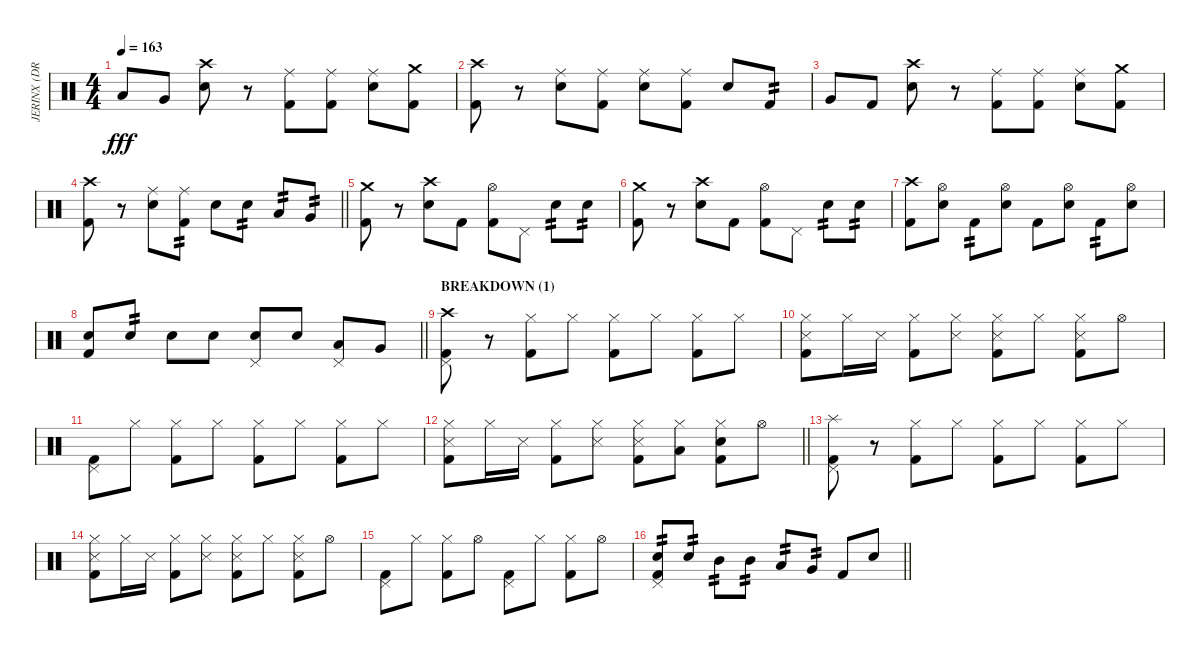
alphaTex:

\track ("JERINX (DRUM)" "JERINX (DR") {instrument percussion}
\staff {score}
\articulation defaults
\ts (4 4)
\tempo 163
\clef neutral
\ks c "Low Tom (hit)".8{dy fff} "Very Low Tom (hit)".8
("Snare (hit) 2" "Crash high (hit)").8 r.8 ("Kick (hit) 2" "Ride (middle)").8 ("Kick (hit) 2" "Ride (middle)").8 ("Snare (hit) 2" "Ride (middle)").8 ("Kick (hit) 2" "Crash medium (hit)").8 |
("Kick (hit) 2" "Crash high (hit)").8 r.8 ("Snare (hit) 2" "Ride (middle)").8 ("Kick (hit) 2" "Ride (middle)").8 ("Snare (hit) 2" "Ride (middle)").8 ("Kick (hit) 2" "Ride (middle)").8 "Snare (hit) 2".8 "Kick (hit) 2".8{tp 2} |
"Very Low Tom (hit)".8 "Kick (hit) 2".8 ("Snare (hit) 2" "Crash high (hit)").8 r.8 ("Kick (hit) 2" "Ride (middle)").8 ("Kick (hit) 2" "Ride (middle)").8 ("Snare (hit) 2" "Ride (middle)").8 ("Kick (hit) 2" "Crash medium (hit)").8 |
\barLineRight lightlight
("Kick (hit) 2" "Crash high (hit)").8 r.8 ("Snare (hit) 2" "Ride (middle)").8 ("Kick (hit) 2" "Ride (middle)").8{tp 2} "Snare (hit) 2".8 "Snare (hit) 2".8{tp 2} "Low Tom (hit)".8{tp 2} "Very Low Tom (hit)".8{tp 2} |
("Kick (hit) 2" "Crash medium (hit)").8 r.8 ("Snare (hit) 2" "Crash high (hit)").8 "Kick (hit) 2".8 ("Hi-Hat (open)" "Kick (hit) 2").8 "Pedal Hi-Hat (hit)".8 "Snare (hit) 2".8{tp 2} "Snare (hit) 2".8{tp 2} |
("Kick (hit) 2" "Crash medium (hit)").8 r.8 ("Snare (hit) 2" "Crash high (hit)").8 "Kick (hit) 2".8 ("Hi-Hat (open)" "Kick (hit) 2").8 "Pedal Hi-Hat (hit)".8 "Snare (hit) 2".8{tp 2} "Snare (hit) 2".8{tp 2} |
("Kick (hit) 2" "Crash high (hit)").8 ("Hi-Hat (open)" "Snare (hit) 2").8 "Kick (hit) 2".8{tp 2} ("Hi-Hat (open)" "Snare (hit) 2").8 "Kick (hit) 2".8 ("Hi-Hat (open)" "Snare (hit) 2").8 "Kick (hit) 2".8{tp 2} ("Hi-Hat (open)" "Snare (hit) 2").8 |
\barLineRight lightlight
("Snare (hit) 2" "Kick (hit) 2").8 "Snare (hit) 2".8{tp 2} "Snare (hit) 2".8 "Snare (hit) 2".8 ("Pedal Hi-Hat (hit)" "Snare (hit) 2").8 "Snare (hit) 2".8 ("Pedal Hi-Hat (hit)" "Low Tom (hit)").8 "Very Low Tom (hit)".8 |
\section ("" "BREAKDOWN (1)")
("Pedal Hi-Hat (hit)" "Kick (hit) 2" "Crash high (hit)").8 r.8 ("Hi-Hat (closed)" "Kick (hit) 2").8 "Hi-Hat (closed)".8 ("Hi-Hat (closed)" "Kick (hit) 2").8 "Hi-Hat (closed)".8 ("Hi-Hat (closed)" "Kick (hit) 2").8 "Hi-Hat (closed)".8 |
("Hi-Hat (closed)" "Snare (side stick) 3" "Kick (hit) 2").8 "Hi-Hat (closed)".16 "Snare (side stick) 3".16 ("Hi-Hat (closed)" "Kick (hit) 2").8 ("Hi-Hat (closed)" "Snare (side stick) 3").8 ("Hi-Hat (closed)" "Snare (side stick) 3" "Kick (hit) 2").8 "Hi-Hat (closed)".8 ("Hi-Hat (closed)" "Snare (side stick) 3" "Kick (hit) 2").8 "Hi-Hat (open)".8 |
("Pedal Hi-Hat (hit)" "Kick (hit) 2").8 "Hi-Hat (closed)".8 ("Hi-Hat (closed)" "Kick (hit) 2").8 "Hi-Hat (closed)".8 ("Hi-Hat (closed)" "Kick (hit) 2").8 "Hi-Hat (closed)".8 ("Hi-Hat (closed)" "Kick (hit) 2").8 "Hi-Hat (closed)".8 |
\barLineRight lightlight
("Hi-Hat (closed)" "Snare (side stick) 3" "Kick (hit) 2").8 "Hi-Hat (closed)".16 "Snare (side stick) 3".16 ("Hi-Hat (closed)" "Kick (hit) 2").8 ("Hi-Hat (closed)" "Snare (side stick) 3").8 ("Hi-Hat (closed)" "Snare (side stick) 3" "Kick (hit) 2").8 ("Hi-Hat (closed)" "Low Tom (hit)").8 ("Hi-Hat (closed)" "Snare (hit) 2" "Kick (hit) 2").8 "Hi-Hat (open)".8 |
("Pedal Hi-Hat (hit)" "Kick (hit) 2" "Splash (hit)").8 r.8 ("Hi-Hat (closed)" "Kick (hit) 2").8 "Hi-Hat (closed)".8 ("Hi-Hat (closed)" "Kick (hit) 2").8 "Hi-Hat (closed)".8 ("Hi-Hat (closed)" "Kick (hit) 2").8 "Hi-Hat (closed)".8 |
("Hi-Hat (closed)" "Snare (side stick) 3" "Kick (hit) 2").8 "Hi-Hat (closed)".16 "Snare (side stick) 3".16 ("Hi-Hat (closed)" "Kick (hit) 2").8 ("Hi-Hat (closed)" "Snare (side stick) 3").8 ("Hi-Hat (closed)" "Snare (side stick) 3" "Kick (hit) 2").8 "Hi-Hat (closed)".8 ("Hi-Hat (closed)" "Snare (side stick) 3" "Kick (hit) 2").8 "Hi-Hat (open)".8 |
("Pedal Hi-Hat (hit)" "Kick (hit) 2").8 "Hi-Hat (closed)".8 ("Hi-Hat (closed)" "Kick (hit) 2").8 "Hi-Hat (open)".8 ("Pedal Hi-Hat (hit)" "Kick (hit) 2").8 "Hi-Hat (closed)".8 ("Hi-Hat (closed)" "Kick (hit) 2").8 "Hi-Hat (open)".8 |
\barLineRight lightlight
("Pedal Hi-Hat (hit)" "Snare (hit) 2" "Kick (hit) 2").8{tp 2} "Snare (hit) 2".8{tp 2} "Mid Tom (hit)".8{tp 2} "Mid Tom (hit)".8{tp 2} "Low Tom (hit)".8{tp 2} "Very Low Tom (hit)".8{tp 2} "Kick (hit) 2".8 "Snare (hit) 2".8
